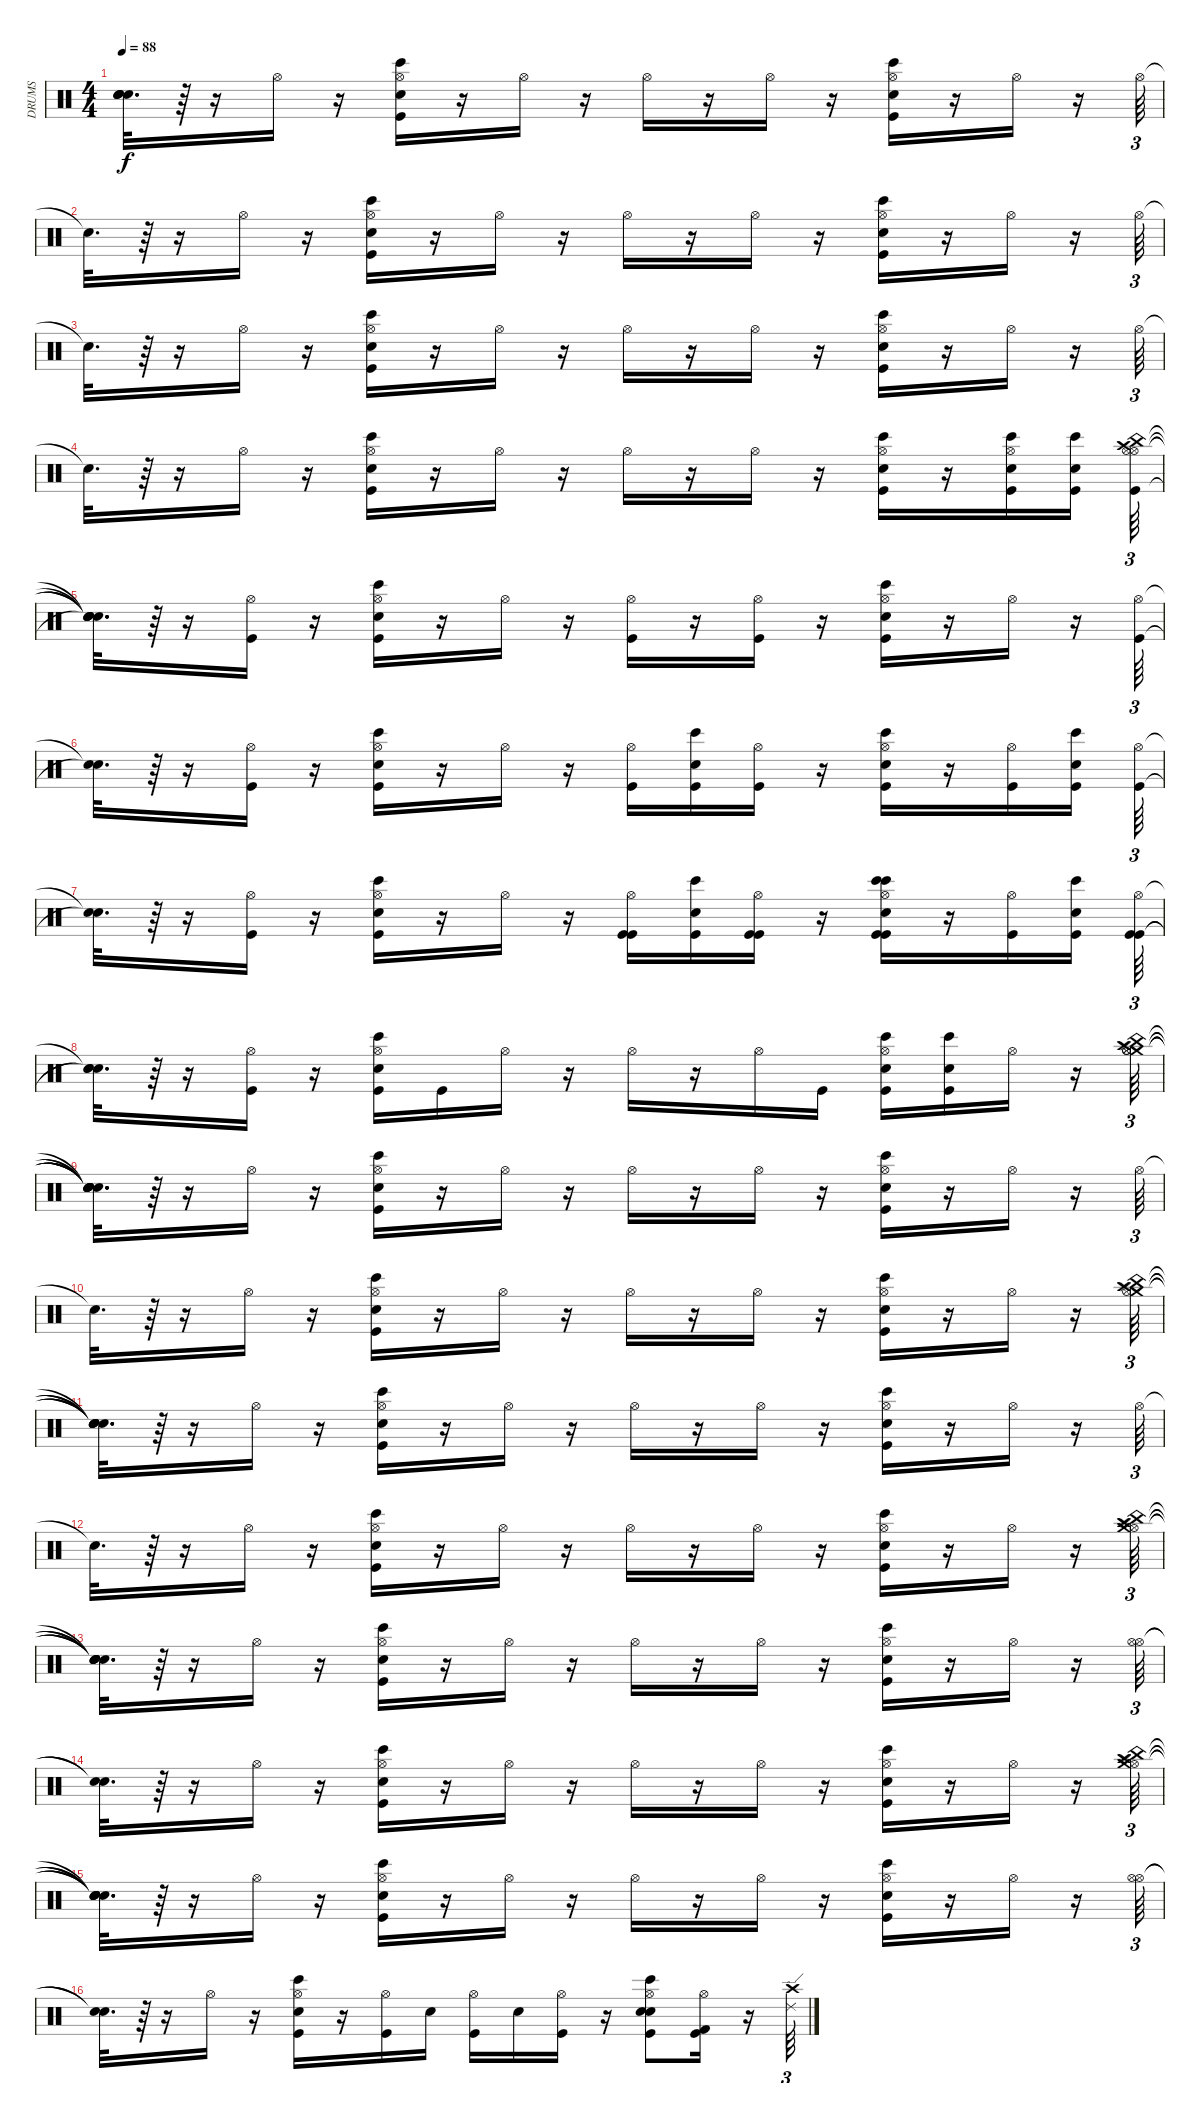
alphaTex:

\track ("DRUMS" "DRUMS") {instrument percussion}
\staff {score}
\articulation defaults
\ts (4 4)
\tempo 88
\clef neutral
\ks c
("Snare (hit)"{t} "Snare (hit)"{t} "Snare (hit)"{t} "Snare (hit)"{t}).32{d dy f} r.64 r.16 "Hi-Hat (open)".16 r.16 ("Hi-Hat (open)" "Bongo High (hit)" "Kick (hit)" "Electric Snare (hit)").16 r.16 "Hi-Hat (open)".16 r.16 "Hi-Hat (open)".16 r.16 "Hi-Hat (open)".16 r.16 ("Hi-Hat (open)" "Bongo High (hit)" "Kick (hit)" "Electric Snare (hit)").16 r.16 "Hi-Hat (open)".16 r.16 "Hi-Hat (open)".64{tu (3 2)} |
"Snare (hit)"{t}.32{d} r.64 r.16 "Hi-Hat (open)".16 r.16 ("Hi-Hat (open)" "Bongo High (hit)" "Kick (hit)" "Electric Snare (hit)").16 r.16 "Hi-Hat (open)".16 r.16 "Hi-Hat (open)".16 r.16 "Hi-Hat (open)".16 r.16 ("Hi-Hat (open)" "Bongo High (hit)" "Kick (hit)" "Electric Snare (hit)").16 r.16 "Hi-Hat (open)".16 r.16 "Hi-Hat (open)".64{tu (3 2)} |
"Snare (hit)"{t}.32{d} r.64 r.16 "Hi-Hat (open)".16 r.16 ("Hi-Hat (open)" "Bongo High (hit)" "Kick (hit)" "Electric Snare (hit)").16 r.16 "Hi-Hat (open)".16 r.16 "Hi-Hat (open)".16 r.16 "Hi-Hat (open)".16 r.16 ("Hi-Hat (open)" "Bongo High (hit)" "Kick (hit)" "Electric Snare (hit)").16 r.16 "Hi-Hat (open)".16 r.16 "Hi-Hat (open)".64{tu (3 2)} |
"Snare (hit)"{t}.32{d} r.64 r.16 "Hi-Hat (open)".16 r.16 ("Hi-Hat (open)" "Bongo High (hit)" "Kick (hit)" "Electric Snare (hit)").16 r.16 "Hi-Hat (open)".16 r.16 "Hi-Hat (open)".16 r.16 "Hi-Hat (open)".16 r.16 ("Hi-Hat (open)" "Bongo High (hit)" "Kick (hit)" "Electric Snare (hit)").16 r.16 ("Hi-Hat (open)" "Bongo High (hit)" "Kick (hit)" "Electric Snare (hit)").16 ("Bongo High (hit)" "Kick (hit)" "Electric Snare (hit)").16 ("Hi-Hat (open)" "Kick (hit)" "Hi-Hat (open)" "China (hit)" "Crash high (hit)").64{tu (3 2)} |
("Snare (hit)"{t} "Snare (hit)"{t} "Snare (hit)"{t} "Snare (hit)"{t} "Snare (hit)"{t}).32{d} r.64 r.16 ("Hi-Hat (open)" "Kick (hit)").16 r.16 ("Hi-Hat (open)" "Bongo High (hit)" "Kick (hit)" "Electric Snare (hit)").16 r.16 "Hi-Hat (open)".16 r.16 ("Hi-Hat (open)" "Kick (hit)").16 r.16 ("Hi-Hat (open)" "Kick (hit)").16 r.16 ("Hi-Hat (open)" "Bongo High (hit)" "Kick (hit)" "Electric Snare (hit)").16 r.16 "Hi-Hat (open)".16 r.16 ("Hi-Hat (open)" "Kick (hit)").64{tu (3 2)} |
("Snare (hit)"{t} "Snare (hit)"{t}).32{d} r.64 r.16 ("Hi-Hat (open)" "Kick (hit)").16 r.16 ("Hi-Hat (open)" "Bongo High (hit)" "Kick (hit)" "Electric Snare (hit)").16 r.16 "Hi-Hat (open)".16 r.16 ("Hi-Hat (open)" "Kick (hit)").16 ("Bongo High (hit)" "Kick (hit)" "Electric Snare (hit)").16 ("Hi-Hat (open)" "Kick (hit)").16 r.16 ("Hi-Hat (open)" "Bongo High (hit)" "Kick (hit)" "Electric Snare (hit)").16 r.16 ("Hi-Hat (open)" "Kick (hit)").16 ("Bongo High (hit)" "Kick (hit)" "Electric Snare (hit)").16 ("Hi-Hat (open)" "Kick (hit)").64{tu (3 2)} |
("Snare (hit)"{t} "Snare (hit)"{t}).32{d} r.64 r.16 ("Hi-Hat (open)" "Kick (hit)").16 r.16 ("Hi-Hat (open)" "Bongo High (hit)" "Kick (hit)" "Electric Snare (hit)").16 r.16 "Hi-Hat (open)".16 r.16 ("Hi-Hat (open)" "Kick (hit)" "Kick (hit)").16 ("Bongo High (hit)" "Kick (hit)" "Electric Snare (hit)").16 ("Hi-Hat (open)" "Kick (hit)" "Kick (hit)").16 r.16 ("Hi-Hat (open)" "Bongo High (hit)" "Kick (hit)" "Electric Snare (hit)" "Bongo High (hit)" "Kick (hit)").16 r.16 ("Hi-Hat (open)" "Kick (hit)").16 ("Bongo High (hit)" "Kick (hit)" "Electric Snare (hit)").16 ("Hi-Hat (open)" "Kick (hit)" "Kick (hit)").64{tu (3 2)} |
("Snare (hit)"{t} "Snare (hit)"{t} "Snare (hit)"{t}).32{d} r.64 r.16 ("Hi-Hat (open)" "Kick (hit)").16 r.16 ("Hi-Hat (open)" "Bongo High (hit)" "Kick (hit)" "Electric Snare (hit)").16 "Kick (hit)".16 "Hi-Hat (open)".16 r.16 "Hi-Hat (open)".16 r.16 "Hi-Hat (open)".16 "Kick (hit)".16 ("Hi-Hat (open)" "Bongo High (hit)" "Kick (hit)" "Electric Snare (hit)").16 ("Bongo High (hit)" "Kick (hit)" "Electric Snare (hit)").16 "Hi-Hat (open)".16 r.16 ("Crash high (hit)" "China (hit)" "Crash medium (hit)" "Splash (hit)" "Hi-Hat (open)" "Hi-Hat (open)").64{tu (3 2)} |
("Snare (hit)"{t} "Snare (hit)"{t} "Snare (hit)"{t} "Snare (hit)"{t} "Snare (hit)"{t} "Snare (hit)"{t}).32{d} r.64 r.16 "Hi-Hat (open)".16 r.16 ("Bongo High (hit)" "Kick (hit)" "Electric Snare (hit)" "Hi-Hat (open)").16 r.16 "Hi-Hat (open)".16 r.16 "Hi-Hat (open)".16 r.16 "Hi-Hat (open)".16 r.16 ("Bongo High (hit)" "Kick (hit)" "Electric Snare (hit)" "Hi-Hat (open)").16 r.16 "Hi-Hat (open)".16 r.16 "Hi-Hat (open)".64{tu (3 2)} |
"Snare (hit)"{t}.32{d} r.64 r.16 "Hi-Hat (open)".16 r.16 ("Bongo High (hit)" "Kick (hit)" "Electric Snare (hit)" "Hi-Hat (open)").16 r.16 "Hi-Hat (open)".16 r.16 "Hi-Hat (open)".16 r.16 "Hi-Hat (open)".16 r.16 ("Bongo High (hit)" "Kick (hit)" "Electric Snare (hit)" "Hi-Hat (open)").16 r.16 "Hi-Hat (open)".16 r.16 ("Crash high (hit)" "China (hit)" "Crash medium (hit)" "Splash (hit)" "Hi-Hat (open)").64{tu (3 2)} |
("Snare (hit)"{t} "Snare (hit)"{t} "Snare (hit)"{t} "Snare (hit)"{t} "Snare (hit)"{t}).32{d} r.64 r.16 "Hi-Hat (open)".16 r.16 ("Bongo High (hit)" "Kick (hit)" "Electric Snare (hit)" "Hi-Hat (open)").16 r.16 "Hi-Hat (open)".16 r.16 "Hi-Hat (open)".16 r.16 "Hi-Hat (open)".16 r.16 ("Bongo High (hit)" "Kick (hit)" "Electric Snare (hit)" "Hi-Hat (open)").16 r.16 "Hi-Hat (open)".16 r.16 "Hi-Hat (open)".64{tu (3 2)} |
"Snare (hit)"{t}.32{d} r.64 r.16 "Hi-Hat (open)".16 r.16 ("Bongo High (hit)" "Kick (hit)" "Electric Snare (hit)" "Hi-Hat (open)").16 r.16 "Hi-Hat (open)".16 r.16 "Hi-Hat (open)".16 r.16 "Hi-Hat (open)".16 r.16 ("Bongo High (hit)" "Kick (hit)" "Electric Snare (hit)" "Hi-Hat (open)").16 r.16 "Hi-Hat (open)".16 r.16 ("Hi-Hat (open)" "Crash high (hit)" "China (hit)" "Crash medium (hit)" "Splash (hit)").64{tu (3 2)} |
("Snare (hit)"{t} "Snare (hit)"{t} "Snare (hit)"{t} "Snare (hit)"{t} "Snare (hit)"{t}).32{d} r.64 r.16 "Hi-Hat (open)".16 r.16 ("Bongo High (hit)" "Kick (hit)" "Electric Snare (hit)" "Hi-Hat (open)").16 r.16 "Hi-Hat (open)".16 r.16 "Hi-Hat (open)".16 r.16 "Hi-Hat (open)".16 r.16 ("Bongo High (hit)" "Kick (hit)" "Electric Snare (hit)" "Hi-Hat (open)").16 r.16 "Hi-Hat (open)".16 r.16 ("Hi-Hat (open)" "Hi-Hat (open)").64{tu (3 2)} |
("Snare (hit)"{t} "Snare (hit)"{t}).32{d} r.64 r.16 "Hi-Hat (open)".16 r.16 ("Bongo High (hit)" "Kick (hit)" "Electric Snare (hit)" "Hi-Hat (open)").16 r.16 "Hi-Hat (open)".16 r.16 "Hi-Hat (open)".16 r.16 "Hi-Hat (open)".16 r.16 ("Bongo High (hit)" "Kick (hit)" "Electric Snare (hit)" "Hi-Hat (open)").16 r.16 "Hi-Hat (open)".16 r.16 ("Hi-Hat (open)" "Crash high (hit)" "China (hit)" "Crash medium (hit)" "Splash (hit)").64{tu (3 2)} |
("Snare (hit)"{t} "Snare (hit)"{t} "Snare (hit)"{t} "Snare (hit)"{t} "Snare (hit)"{t}).32{d} r.64 r.16 "Hi-Hat (open)".16 r.16 ("Bongo High (hit)" "Kick (hit)" "Electric Snare (hit)" "Hi-Hat (open)").16 r.16 "Hi-Hat (open)".16 r.16 "Hi-Hat (open)".16 r.16 "Hi-Hat (open)".16 r.16 ("Bongo High (hit)" "Kick (hit)" "Electric Snare (hit)" "Hi-Hat (open)").16 r.16 "Hi-Hat (open)".16 r.16 ("Hi-Hat (open)" "Hi-Hat (open)").64{tu (3 2)} |
("Snare (hit)"{t} "Snare (hit)"{t}).32{d} r.64 r.16 "Hi-Hat (open)".16 r.16 ("Bongo High (hit)" "Kick (hit)" "Electric Snare (hit)" "Hi-Hat (open)").16 r.16 ("Kick (hit)" "Hi-Hat (open)").16 "Electric Snare (hit)".16 ("Kick (hit)" "Hi-Hat (open)").16 "Electric Snare (hit)".16 ("Kick (hit)" "Hi-Hat (open)").16 r.16 ("Electric Snare (hit)" "Bongo High (hit)" "Kick (hit)" "Electric Snare (hit)" "Hi-Hat (open)").8 ("Kick (hit)" "Kick (hit) 2" "Hi-Hat (open)").16 r.16 ("Crash high (hit)" "Ride (edge) 2").64{tu (3 2)}
